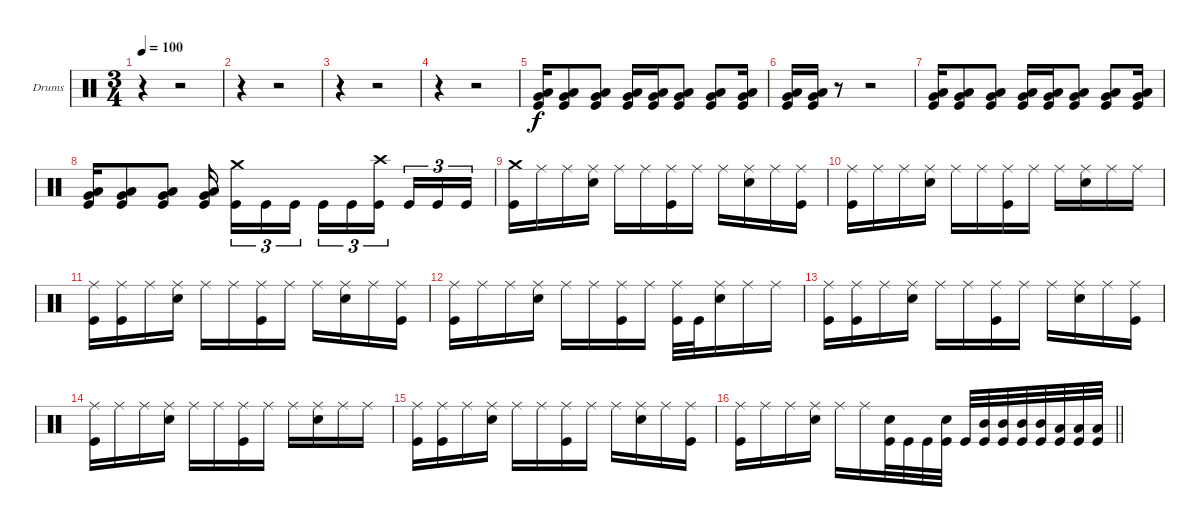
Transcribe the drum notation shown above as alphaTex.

\bracketExtendMode groupsimilarinstruments
\firstSystemTrackNameOrientation horizontal
\otherSystemsTrackNameOrientation horizontal
\track ("Drumkit" "Drums") {instrument percussion}
\staff {score}
\articulation defaults
\ts (3 4)
\beaming (8 2 2 2)
\tempo 100
\clef neutral
\ks c
r.4{dy f} r.2 |
r.4 r.2 |
r.4 r.2 |
r.4 r.2 |
("Very Low Tom (hit)" "Low Tom (hit)" "Kick (hit)").16 ("Very Low Tom (hit)" "Low Tom (hit)" "Kick (hit)").8 ("Very Low Tom (hit)" "Low Tom (hit)" "Kick (hit)").8 ("Very Low Tom (hit)" "Low Tom (hit)" "Kick (hit)").16 ("Very Low Tom (hit)" "Low Tom (hit)" "Kick (hit)").16 ("Very Low Tom (hit)" "Low Tom (hit)" "Kick (hit)").8 ("Very Low Tom (hit)" "Low Tom (hit)" "Kick (hit)").8 ("Very Low Tom (hit)" "Low Tom (hit)" "Kick (hit)").16 |
("Very Low Tom (hit)" "Low Tom (hit)" "Kick (hit)").16 ("Very Low Tom (hit)" "Low Tom (hit)" "Kick (hit)").16 r.8 r.2 |
("Very Low Tom (hit)" "Low Tom (hit)" "Kick (hit)").16 ("Very Low Tom (hit)" "Low Tom (hit)" "Kick (hit)").8 ("Very Low Tom (hit)" "Low Tom (hit)" "Kick (hit)").8 ("Very Low Tom (hit)" "Low Tom (hit)" "Kick (hit)").16 ("Very Low Tom (hit)" "Low Tom (hit)" "Kick (hit)").16 ("Very Low Tom (hit)" "Low Tom (hit)" "Kick (hit)").8 ("Very Low Tom (hit)" "Low Tom (hit)" "Kick (hit)").8 ("Very Low Tom (hit)" "Low Tom (hit)" "Kick (hit)").16 |
("Very Low Tom (hit)" "Low Tom (hit)" "Kick (hit)").16 ("Very Low Tom (hit)" "Low Tom (hit)" "Kick (hit)").8 ("Very Low Tom (hit)" "Low Tom (hit)" "Kick (hit)").8 ("Very Low Tom (hit)" "Low Tom (hit)" "Kick (hit)").16 ("Crash medium (hit)" "Kick (hit)").16{tu (3 2)} "Kick (hit)".16{tu (3 2)} "Kick (hit)".16{tu (3 2)} "Kick (hit)".16{tu (3 2)} "Kick (hit)".16{tu (3 2)} ("Crash high (hit)" "Kick (hit)").16{tu (3 2)} "Kick (hit)".16{tu (3 2)} "Kick (hit)".16{tu (3 2)} "Kick (hit)".16{tu (3 2)} |
("Crash medium (hit)" "Kick (hit)").16 "Ride (middle)".16 "Ride (middle)".16 ("Ride (middle)" "Snare (hit) 2").16 "Ride (middle)".16 "Ride (middle)".16 ("Ride (middle)" "Kick (hit)").16 "Ride (middle)".16 "Ride (middle)".16 ("Ride (middle)" "Snare (hit) 2").16 "Ride (middle)".16 ("Ride (middle)" "Kick (hit)").16 |
("Ride (middle)" "Kick (hit)").16 "Ride (middle)".16 "Ride (middle)".16 ("Ride (middle)" "Snare (hit) 2").16 "Ride (middle)".16 "Ride (middle)".16 ("Ride (middle)" "Kick (hit)").16 "Ride (middle)".16 "Ride (middle)".16 ("Ride (middle)" "Snare (hit) 2").16 "Ride (middle)".16 "Ride (middle)".16 |
("Ride (middle)" "Kick (hit)").16 ("Ride (middle)" "Kick (hit)").16 "Ride (middle)".16 ("Ride (middle)" "Snare (hit) 2").16 "Ride (middle)".16 "Ride (middle)".16 ("Ride (middle)" "Kick (hit)").16 "Ride (middle)".16 "Ride (middle)".16 ("Ride (middle)" "Snare (hit) 2").16 "Ride (middle)".16 ("Ride (middle)" "Kick (hit)").16 |
("Ride (middle)" "Kick (hit)").16 "Ride (middle)".16 "Ride (middle)".16 ("Ride (middle)" "Snare (hit) 2").16 "Ride (middle)".16 "Ride (middle)".16 ("Ride (middle)" "Kick (hit)").16 "Ride (middle)".16 ("Ride (middle)" "Kick (hit)").32 "Kick (hit)".32 ("Ride (middle)" "Snare (hit) 2").16 "Ride (middle)".16 "Ride (middle)".16 |
("Ride (middle)" "Kick (hit)").16 ("Ride (middle)" "Kick (hit)").16 "Ride (middle)".16 ("Ride (middle)" "Snare (hit) 2").16 "Ride (middle)".16 "Ride (middle)".16 ("Ride (middle)" "Kick (hit)").16 "Ride (middle)".16 "Ride (middle)".16 ("Ride (middle)" "Snare (hit) 2").16 "Ride (middle)".16 ("Ride (middle)" "Kick (hit)").16 |
("Ride (middle)" "Kick (hit)").16 "Ride (middle)".16 "Ride (middle)".16 ("Ride (middle)" "Snare (hit) 2").16 "Ride (middle)".16 "Ride (middle)".16 ("Ride (middle)" "Kick (hit)").16 "Ride (middle)".16 "Ride (middle)".16 ("Ride (middle)" "Snare (hit) 2").16 "Ride (middle)".16 "Ride (middle)".16 |
("Ride (middle)" "Kick (hit)").16 ("Ride (middle)" "Kick (hit)").16 "Ride (middle)".16 ("Ride (middle)" "Snare (hit) 2").16 "Ride (middle)".16 "Ride (middle)".16 ("Ride (middle)" "Kick (hit)").16 "Ride (middle)".16 "Ride (middle)".16 ("Ride (middle)" "Snare (hit) 2").16 "Ride (middle)".16 ("Ride (middle)" "Kick (hit)").16 |
\barLineRight lightlight
("Ride (middle)" "Kick (hit)").16 "Ride (middle)".16 "Ride (middle)".16 ("Ride (middle)" "Snare (hit) 2").16 "Ride (middle)".16 "Ride (middle)".16 ("Snare (hit) 2" "Kick (hit)").32 "Kick (hit)".32 "Kick (hit)".32 ("Snare (hit) 2" "Kick (hit)").32 "Kick (hit)".32 ("Mid Tom (hit)" "Kick (hit)").32 ("Mid Tom (hit)" "Kick (hit)").32 ("Mid Tom (hit)" "Kick (hit)").32 ("Mid Tom (hit)" "Kick (hit)").32 ("Low Tom (hit)" "Kick (hit)").32 ("Low Tom (hit)" "Kick (hit)").32 ("Low Tom (hit)" "Kick (hit)").32
